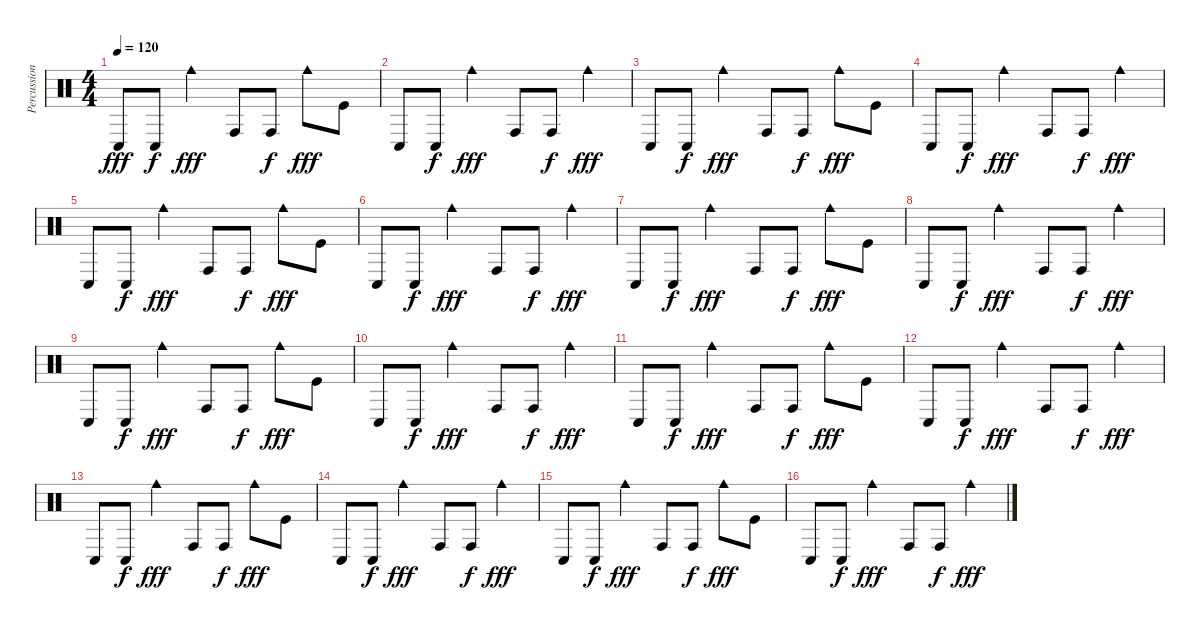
\track ("Percussions" "Percussion") {instrument percussion}
\staff {score}
\articulation defaults
\ts (4 4)
\tempo 120
\clef neutral
\ks c "Conga low (hit)".8{dy fff} "Conga low (hit)".8{dy f} "Cowbell medium (hit)".4{dy fff} "Conga high (hit)".8 "Conga high (hit)".8{dy f} "Cowbell medium (hit)".8{dy fff} "Kick (hit)".8
|
"Conga low (hit)".8 "Conga low (hit)".8{dy f} "Cowbell medium (hit)".4{dy fff} "Conga high (hit)".8 "Conga high (hit)".8{dy f} "Cowbell medium (hit)".4{dy fff} |
"Conga low (hit)".8 "Conga low (hit)".8{dy f} "Cowbell medium (hit)".4{dy fff} "Conga high (hit)".8 "Conga high (hit)".8{dy f} "Cowbell medium (hit)".8{dy fff} "Kick (hit)".8 |
"Conga low (hit)".8 "Conga low (hit)".8{dy f} "Cowbell medium (hit)".4{dy fff} "Conga high (hit)".8 "Conga high (hit)".8{dy f} "Cowbell medium (hit)".4{dy fff} |
"Conga low (hit)".8 "Conga low (hit)".8{dy f} "Cowbell medium (hit)".4{dy fff} "Conga high (hit)".8 "Conga high (hit)".8{dy f} "Cowbell medium (hit)".8{dy fff} "Kick (hit)".8 |
"Conga low (hit)".8 "Conga low (hit)".8{dy f} "Cowbell medium (hit)".4{dy fff} "Conga high (hit)".8 "Conga high (hit)".8{dy f} "Cowbell medium (hit)".4{dy fff} |
"Conga low (hit)".8 "Conga low (hit)".8{dy f} "Cowbell medium (hit)".4{dy fff} "Conga high (hit)".8 "Conga high (hit)".8{dy f} "Cowbell medium (hit)".8{dy fff} "Kick (hit)".8 |
"Conga low (hit)".8 "Conga low (hit)".8{dy f} "Cowbell medium (hit)".4{dy fff} "Conga high (hit)".8 "Conga high (hit)".8{dy f} "Cowbell medium (hit)".4{dy fff} |
"Conga low (hit)".8 "Conga low (hit)".8{dy f} "Cowbell medium (hit)".4{dy fff} "Conga high (hit)".8 "Conga high (hit)".8{dy f} "Cowbell medium (hit)".8{dy fff} "Kick (hit)".8 |
"Conga low (hit)".8 "Conga low (hit)".8{dy f} "Cowbell medium (hit)".4{dy fff} "Conga high (hit)".8 "Conga high (hit)".8{dy f} "Cowbell medium (hit)".4{dy fff} |
"Conga low (hit)".8 "Conga low (hit)".8{dy f} "Cowbell medium (hit)".4{dy fff} "Conga high (hit)".8 "Conga high (hit)".8{dy f} "Cowbell medium (hit)".8{dy fff} "Kick (hit)".8 |
"Conga low (hit)".8 "Conga low (hit)".8{dy f} "Cowbell medium (hit)".4{dy fff} "Conga high (hit)".8 "Conga high (hit)".8{dy f} "Cowbell medium (hit)".4{dy fff} |
"Conga low (hit)".8 "Conga low (hit)".8{dy f} "Cowbell medium (hit)".4{dy fff} "Conga high (hit)".8 "Conga high (hit)".8{dy f} "Cowbell medium (hit)".8{dy fff} "Kick (hit)".8 |
"Conga low (hit)".8 "Conga low (hit)".8{dy f} "Cowbell medium (hit)".4{dy fff} "Conga high (hit)".8 "Conga high (hit)".8{dy f} "Cowbell medium (hit)".4{dy fff} |
"Conga low (hit)".8 "Conga low (hit)".8{dy f} "Cowbell medium (hit)".4{dy fff} "Conga high (hit)".8 "Conga high (hit)".8{dy f} "Cowbell medium (hit)".8{dy fff} "Kick (hit)".8 |
"Conga low (hit)".8 "Conga low (hit)".8{dy f} "Cowbell medium (hit)".4{dy fff} "Conga high (hit)".8 "Conga high (hit)".8{dy f} "Cowbell medium (hit)".4{dy fff}
